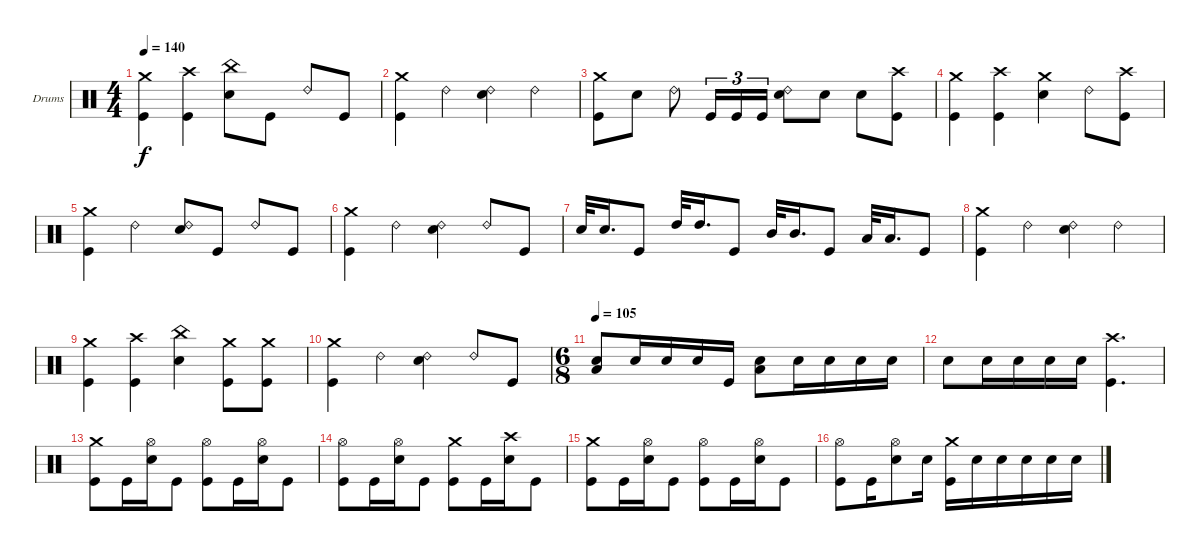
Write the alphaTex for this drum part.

\defaultSystemsLayout 4
\bracketExtendMode groupsimilarinstruments
\firstSystemTrackNameOrientation horizontal
\otherSystemsTrackNameOrientation horizontal
\track ("Stefan Schwarzmann" "Drums") {instrument percussion}
\staff {score}
\articulation defaults
\ts (4 4)
\tempo 140
\clef neutral
\ks c
("Crash medium (hit)" "Kick (hit)").4{dy f} ("Crash high (hit)" "Kick (hit)").4 ("China (hit)" "Snare (hit) 2").8 "Kick (hit)".8 "Ride (bell) 2".8 "Kick (hit)".8 |
("Crash medium (hit)" "Kick (hit)").4 "Ride (bell) 2".4 ("Ride (bell) 2" "Snare (hit) 2").4 "Ride (bell) 2".4 |
("Crash medium (hit)" "Kick (hit)").8 "Snare (hit) 2".8 "Ride (bell) 2".8 "Kick (hit)".16{tu (3 2)} "Kick (hit)".16{tu (3 2)} "Kick (hit)".16{tu (3 2)} ("Ride (bell) 2" "Snare (hit) 2").8 "Snare (hit) 2".8 "Snare (hit) 2".8 ("Crash high (hit)" "Kick (hit)").8 |
("Crash medium (hit)" "Kick (hit)").4 ("Crash high (hit)" "Kick (hit)").4 ("Crash medium (hit)" "Snare (hit) 2").4 "Ride (bell) 2".8 ("Crash high (hit)" "Kick (hit)").8 |
("Crash medium (hit)" "Kick (hit)").4 "Ride (bell) 2".4 ("Ride (bell) 2" "Snare (hit) 2").8 "Kick (hit)".8 "Ride (bell) 2".8 "Kick (hit)".8 |
("Crash medium (hit)" "Kick (hit)").4 "Ride (bell) 2".4 ("Ride (bell) 2" "Snare (hit) 2").4 "Ride (bell) 2".8 "Kick (hit)".8 |
"Snare (hit) 2".32 "Snare (hit) 2".16{d} "Kick (hit)".8 "High Tom (hit)".32 "High Tom (hit)".16{d} "Kick (hit)".8 "Mid Tom (hit)".32 "Mid Tom (hit)".16{d} "Kick (hit)".8 "Low Tom (hit)".32 "Low Tom (hit)".16{d} "Kick (hit)".8 |
("Crash medium (hit)" "Kick (hit)").4 "Ride (bell) 2".4 ("Ride (bell) 2" "Snare (hit) 2").4 "Ride (bell) 2".4 |
("Crash medium (hit)" "Kick (hit)").4 ("Crash high (hit)" "Kick (hit)").4 ("China (hit)" "Snare (hit) 2").4 ("Crash medium (hit)" "Kick (hit)").8 ("Crash medium (hit)" "Kick (hit)").8 |
("Crash medium (hit)" "Kick (hit)").4 "Ride (bell) 2".4 ("Ride (bell) 2" "Snare (hit) 2").4 "Ride (bell) 2".8 "Kick (hit)".8 |
\ts (6 8)
\tempo 105
("Low Tom (hit)" "Snare (hit) 2").8 "Snare (hit) 2".16 "Snare (hit) 2".16 "Snare (hit) 2".16 "Kick (hit)".16 ("Low Tom (hit)" "Snare (hit) 2").8 "Snare (hit) 2".16 "Snare (hit) 2".16 "Snare (hit) 2".16 "Snare (hit) 2".16 |
"Snare (hit) 2".8 "Snare (hit) 2".16 "Snare (hit) 2".16 "Snare (hit) 2".16 "Snare (hit) 2".16 ("Crash high (hit)" "Kick (hit)").4{d} |
("Crash medium (hit)" "Kick (hit)").8 "Kick (hit)".16 ("Hi-Hat (open)" "Snare (hit) 2").16 "Kick (hit)".8 ("Hi-Hat (open)" "Kick (hit)").8 "Kick (hit)".16 ("Hi-Hat (open)" "Snare (hit) 2").16 "Kick (hit)".8 |
("Hi-Hat (open)" "Kick (hit)").8 "Kick (hit)".16 ("Hi-Hat (open)" "Snare (hit) 2").16 "Kick (hit)".8 ("Crash medium (hit)" "Kick (hit)").8 "Kick (hit)".16 ("Crash high (hit)" "Snare (hit) 2").16 "Kick (hit)".8 |
("Crash medium (hit)" "Kick (hit)").8 "Kick (hit)".16 ("Hi-Hat (open)" "Snare (hit) 2").16 "Kick (hit)".8 ("Hi-Hat (open)" "Kick (hit)").8 "Kick (hit)".16 ("Hi-Hat (open)" "Snare (hit) 2").16 "Kick (hit)".8 |
("Hi-Hat (open)" "Kick (hit)").8 "Kick (hit)".16 ("Hi-Hat (open)" "Snare (hit) 2").8 "Snare (hit) 2".16 ("Crash medium (hit)" "Kick (hit)").16 "Snare (hit) 2".16 "Snare (hit) 2".16 "Snare (hit) 2".16 "Snare (hit) 2".16 "Snare (hit) 2".16
